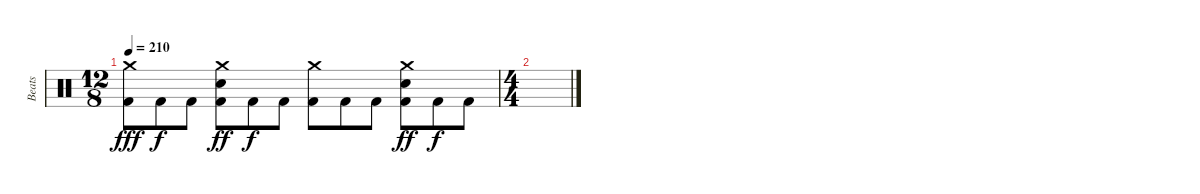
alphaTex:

\track ("Beats" "Beats") {instrument percussion}
\staff {score}
\articulation defaults
\ts (12 8)
\tempo 210
\clef neutral
\ks c
("Crash medium (hit)" "Kick (hit) 2").8{dy fff} "Kick (hit) 2".8{dy f} "Kick (hit) 2".8 ("Crash medium (hit)" "Snare (hit) 2" "Kick (hit) 2").8{dy ff} "Kick (hit) 2".8{dy f} "Kick (hit) 2".8 ("Crash medium (hit)" "Kick (hit) 2").8 "Kick (hit) 2".8 "Kick (hit) 2".8 ("Crash medium (hit)" "Snare (hit) 2" "Kick (hit) 2").8{dy ff} "Kick (hit) 2".8{dy f} "Kick (hit) 2".8 |
\ts (4 4)
